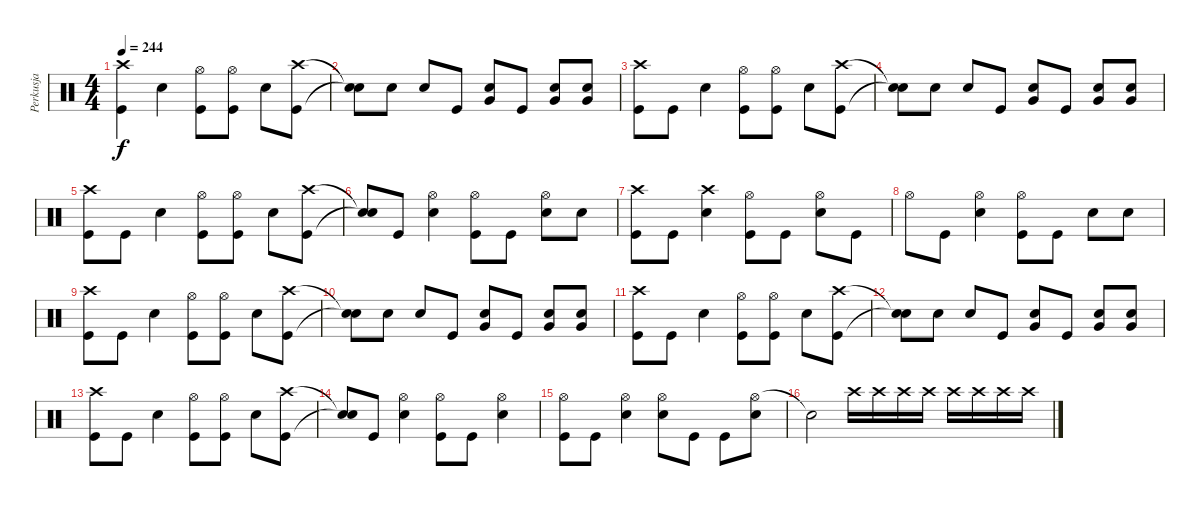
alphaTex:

\track ("Perkusja" "Perkusja") {instrument percussion}
\staff {score}
\articulation defaults
\ts (4 4)
\tempo 244
\clef neutral
\ks c
("Crash high (hit)" "Kick (hit)").4{dy f} "Snare (hit) 2".4 ("Hi-Hat (open)" "Kick (hit)").8 ("Hi-Hat (open)" "Kick (hit)").8 "Snare (hit) 2".8 ("Crash high (hit)" "Kick (hit)").8 |
("Snare (hit)"{t} "Snare (hit)"{t}).8 "Snare (hit) 2".8 "Snare (hit) 2".8 "Kick (hit)".8 ("Snare (hit) 2" "Very Low Tom (hit)").8 "Kick (hit)".8 ("Snare (hit) 2" "Very Low Tom (hit)").8 ("Snare (hit) 2" "Very Low Tom (hit)").8 |
("Crash high (hit)" "Kick (hit)").8 "Kick (hit)".8 "Snare (hit) 2".4 ("Hi-Hat (open)" "Kick (hit)").8 ("Hi-Hat (open)" "Kick (hit)").8 "Snare (hit) 2".8 ("Crash high (hit)" "Kick (hit)").8 |
("Snare (hit)"{t} "Snare (hit)"{t}).8 "Snare (hit) 2".8 "Snare (hit) 2".8 "Kick (hit)".8 ("Snare (hit) 2" "Very Low Tom (hit)").8 "Kick (hit)".8 ("Snare (hit) 2" "Very Low Tom (hit)").8 ("Snare (hit) 2" "Very Low Tom (hit)").8 |
("Crash high (hit)" "Kick (hit)").8 "Kick (hit)".8 "Snare (hit) 2".4 ("Hi-Hat (open)" "Kick (hit)").8 ("Hi-Hat (open)" "Kick (hit)").8 "Snare (hit) 2".8 ("Crash high (hit)" "Kick (hit)").8 |
("Snare (hit)"{t} "Snare (hit)"{t}).8 "Kick (hit)".8 ("Hi-Hat (open)" "Snare (hit) 2").4 ("Hi-Hat (open)" "Kick (hit)").8 "Kick (hit)".8 ("Hi-Hat (open)" "Snare (hit) 2").8 "Snare (hit) 2".8 |
("Crash high (hit)" "Kick (hit)").8 "Kick (hit)".8 ("Crash high (hit)" "Snare (hit) 2").4 ("Hi-Hat (open)" "Kick (hit)").8 "Kick (hit)".8 ("Hi-Hat (open)" "Snare (hit) 2").8 "Kick (hit)".8 |
"Hi-Hat (open)".8 "Kick (hit)".8 ("Hi-Hat (open)" "Snare (hit) 2").4 ("Hi-Hat (open)" "Kick (hit)").8 "Kick (hit)".8 "Snare (hit) 2".8 "Snare (hit) 2".8 |
("Crash high (hit)" "Kick (hit)").8 "Kick (hit)".8 "Snare (hit) 2".4 ("Hi-Hat (open)" "Kick (hit)").8 ("Hi-Hat (open)" "Kick (hit)").8 "Snare (hit) 2".8 ("Crash high (hit)" "Kick (hit)").8 |
("Snare (hit)"{t} "Snare (hit)"{t}).8 "Snare (hit) 2".8 "Snare (hit) 2".8 "Kick (hit)".8 ("Snare (hit) 2" "Very Low Tom (hit)").8 "Kick (hit)".8 ("Snare (hit) 2" "Very Low Tom (hit)").8 ("Snare (hit) 2" "Very Low Tom (hit)").8 |
("Crash high (hit)" "Kick (hit)").8 "Kick (hit)".8 "Snare (hit) 2".4 ("Hi-Hat (open)" "Kick (hit)").8 ("Hi-Hat (open)" "Kick (hit)").8 "Snare (hit) 2".8 ("Crash high (hit)" "Kick (hit)").8 |
("Snare (hit)"{t} "Snare (hit)"{t}).8 "Snare (hit) 2".8 "Snare (hit) 2".8 "Kick (hit)".8 ("Snare (hit) 2" "Very Low Tom (hit)").8 "Kick (hit)".8 ("Snare (hit) 2" "Very Low Tom (hit)").8 ("Snare (hit) 2" "Very Low Tom (hit)").8 |
("Crash high (hit)" "Kick (hit)").8 "Kick (hit)".8 "Snare (hit) 2".4 ("Hi-Hat (open)" "Kick (hit)").8 ("Hi-Hat (open)" "Kick (hit)").8 "Snare (hit) 2".8 ("Crash high (hit)" "Kick (hit)").8 |
("Snare (hit)"{t} "Snare (hit)"{t}).8 "Kick (hit)".8 ("Hi-Hat (open)" "Snare (hit) 2").4 ("Hi-Hat (open)" "Kick (hit)").8 "Kick (hit)".8 ("Hi-Hat (open)" "Snare (hit) 2").4 |
("Hi-Hat (open)" "Kick (hit)").8 "Kick (hit)".8 ("Hi-Hat (open)" "Snare (hit) 2").4 ("Hi-Hat (open)" "Snare (hit) 2").8 "Kick (hit)".8 "Kick (hit)".8 ("Hi-Hat (open)" "Snare (hit) 2").8 |
"Snare (hit)"{t}.2 "Crash high (hit)".16 "Crash high (hit)".16 "Crash high (hit)".16 "Crash high (hit)".16 "Crash high (hit)".16 "Crash high (hit)".16 "Crash high (hit)".16 "Crash high (hit)".16
